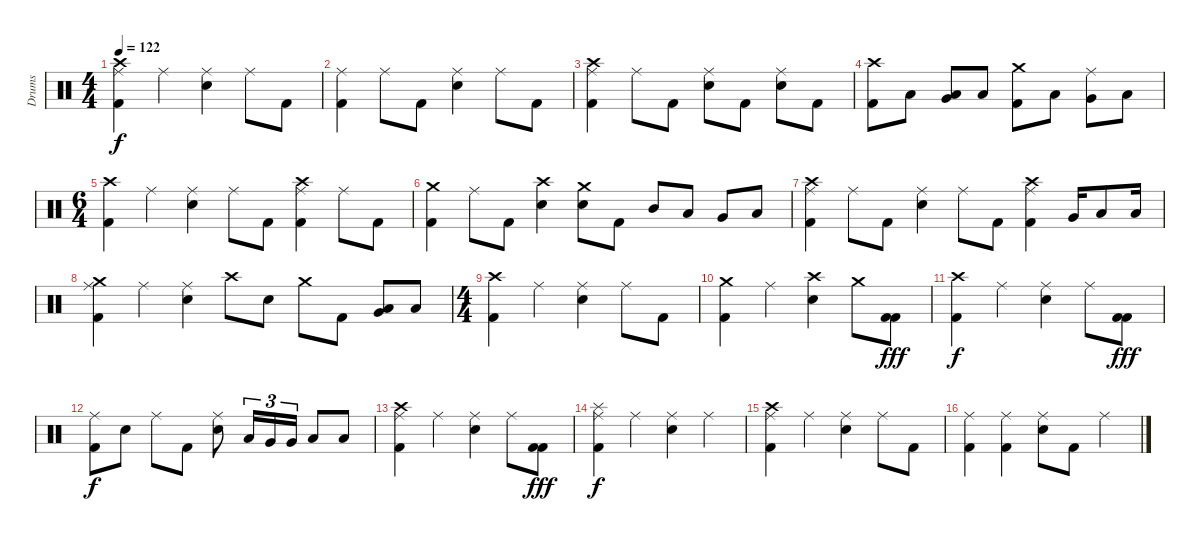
\track ("Drums" "Drums") {instrument percussion}
\staff {score}
\articulation defaults
\ts (4 4)
\tempo 122
\clef neutral
\ks c
("Crash high (hit)" "Ride (middle)" "Kick (hit) 2").4{dy f} "Ride (middle)".4 ("Ride (middle)" "Electric Snare (hit)").4 "Ride (middle)".8 "Kick (hit) 2".8 |
("Ride (middle)" "Kick (hit) 2").4 "Ride (middle)".8 "Kick (hit) 2".8 ("Ride (middle)" "Electric Snare (hit)").4 "Ride (middle)".8 "Kick (hit) 2".8 |
("Crash high (hit)" "Ride (middle)" "Kick (hit) 2").4 "Ride (middle)".8 "Kick (hit) 2".8 ("Ride (middle)" "Electric Snare (hit)").8 "Kick (hit) 2".8 ("Ride (middle)" "Electric Snare (hit)").8 "Kick (hit) 2".8 |
("Crash high (hit)" "Kick (hit) 2").8 "Low Tom (hit)".8 ("Very Low Tom (hit)" "Low Floor Tom (hit)").8 "Low Floor Tom (hit)".8 ("Crash medium (hit)" "Kick (hit) 2").8 "Low Tom (hit)".8 ("Ride (middle)" "Very Low Tom (hit)").8 "Low Floor Tom (hit)".8 |
\ts (6 4)
("Crash high (hit)" "Kick (hit) 2").4 "Ride (middle)".4 ("Ride (middle)" "Electric Snare (hit)").4 "Ride (middle)".8 "Kick (hit) 2".8 ("Crash high (hit)" "Ride (middle)" "Kick (hit) 2").4 "Ride (middle)".8 "Kick (hit) 2".8 |
("Crash medium (hit)" "Kick (hit) 2").4 "Ride (middle)".8 "Kick (hit) 2".8 ("Crash high (hit)" "Electric Snare (hit)").4 ("Crash medium (hit)" "Electric Snare (hit)").8 "Kick (hit) 2".8 "Mid Tom (hit)".8 "Low Tom (hit)".8 "Very Low Tom (hit)".8 "Low Floor Tom (hit)".8 |
("Crash high (hit)" "Ride (middle)" "Kick (hit) 2").4 "Ride (middle)".8 "Kick (hit) 2".8 ("Ride (middle)" "Electric Snare (hit)").4 "Ride (middle)".8 "Kick (hit) 2".8 ("Crash high (hit)" "Ride (middle)" "Kick (hit) 2").4 "Very Low Tom (hit)".16 "Low Floor Tom (hit)".8 "Low Floor Tom (hit)".16 |
("Crash medium (hit)" "Ride (middle)" "Kick (hit) 2").4 "Ride (middle)".4 ("Ride (middle)" "Electric Snare (hit)").4 "Crash high (hit)".8 "Electric Snare (hit)".8 "Crash medium (hit)".8 "Kick (hit) 2".8 ("Low Tom (hit)" "Very Low Tom (hit)").8 "Low Floor Tom (hit)".8 |
\ts (4 4)
("Crash high (hit)" "Kick (hit) 2").4 "Ride (middle)".4 ("Ride (middle)" "Electric Snare (hit)").4 "Ride (middle)".8 "Kick (hit) 2".8 |
("Crash medium (hit)" "Kick (hit) 2").4 "Ride (middle)".4 ("Crash high (hit)" "Electric Snare (hit)").4 "Crash medium (hit)".8 ("Kick (hit) 2" "Kick (hit) 2").8{dy fff} |
("Crash high (hit)" "Kick (hit) 2").4{dy f} "Ride (middle)".4 ("Ride (middle)" "Electric Snare (hit)").4 "Ride (middle)".8 ("Kick (hit) 2" "Kick (hit) 2").8{dy fff} |
("Ride (middle)" "Kick (hit) 2").8{dy f} "Electric Snare (hit)".8 "Ride (middle)".8 "Kick (hit) 2".8 ("Ride (middle)" "Electric Snare (hit)").8 "Low Tom (hit)".16{tu (3 2)} "Very Low Tom (hit)".16{tu (3 2)} "Very Low Tom (hit)".16{tu (3 2)} "Low Floor Tom (hit)".8 "Low Floor Tom (hit)".8 |
("Crash high (hit)" "Ride (middle)" "Kick (hit) 2").4 "Ride (middle)".4 ("Ride (middle)" "Electric Snare (hit)").4 "Ride (middle)".8 ("Kick (hit) 2" "Kick (hit) 2").8{dy fff} |
("Splash (hit)" "Ride (middle)" "Kick (hit) 2").4{dy f} "Ride (middle)".4 ("Ride (middle)" "Electric Snare (hit)").4 "Ride (middle)".4 |
("Crash high (hit)" "Ride (middle)" "Kick (hit) 2").4 "Ride (middle)".4 ("Ride (middle)" "Electric Snare (hit)").4 "Ride (middle)".8 "Kick (hit) 2".8 |
("Ride (middle)" "Kick (hit) 2").4 ("Ride (middle)" "Kick (hit) 2").4 ("Ride (middle)" "Electric Snare (hit)").8 "Kick (hit) 2".8 "Ride (middle)".4
